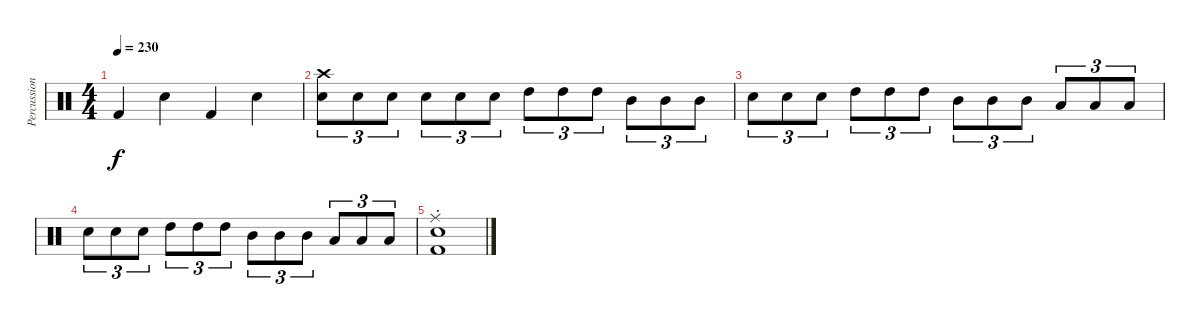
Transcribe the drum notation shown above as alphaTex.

\track ("Percussion" "Percussion") {instrument percussion}
\staff {score}
\articulation defaults
\ts (4 4)
\tempo 230
\clef neutral
\ks c "Kick (hit) 2".4{dy f} "Electric Snare (hit)".4 "Kick (hit) 2".4 "Electric Snare (hit)".4
|
("Crash high (hit)" "Electric Snare (hit)").8{tu (3 2)} "Electric Snare (hit)".8{tu (3 2)} "Electric Snare (hit)".8{tu (3 2)} "Electric Snare (hit)".8{tu (3 2)} "Electric Snare (hit)".8{tu (3 2)} "Electric Snare (hit)".8{tu (3 2)} "High Tom (hit)".8{tu (3 2)} "High Tom (hit)".8{tu (3 2)} "High Tom (hit)".8{tu (3 2)} "Mid Tom (hit)".8{tu (3 2)} "Mid Tom (hit)".8{tu (3 2)} "Mid Tom (hit)".8{tu (3 2)} |
"Electric Snare (hit)".8{tu (3 2)} "Electric Snare (hit)".8{tu (3 2)} "Electric Snare (hit)".8{tu (3 2)} "High Tom (hit)".8{tu (3 2)} "High Tom (hit)".8{tu (3 2)} "High Tom (hit)".8{tu (3 2)} "Mid Tom (hit)".8{tu (3 2)} "Mid Tom (hit)".8{tu (3 2)} "Mid Tom (hit)".8{tu (3 2)} "Low Tom (hit)".8{tu (3 2)} "Low Tom (hit)".8{tu (3 2)} "Low Tom (hit)".8{tu (3 2)} |
"Electric Snare (hit)".8{tu (3 2)} "Electric Snare (hit)".8{tu (3 2)} "Electric Snare (hit)".8{tu (3 2)} "High Tom (hit)".8{tu (3 2)} "High Tom (hit)".8{tu (3 2)} "High Tom (hit)".8{tu (3 2)} "Mid Tom (hit)".8{tu (3 2)} "Mid Tom (hit)".8{tu (3 2)} "Mid Tom (hit)".8{tu (3 2)} "Low Tom (hit)".8{tu (3 2)} "Low Tom (hit)".8{tu (3 2)} "Low Tom (hit)".8{tu (3 2)} |
("Ride (middle)"{st} "Electric Snare (hit)"{st} "Kick (hit) 2"{st}).1
